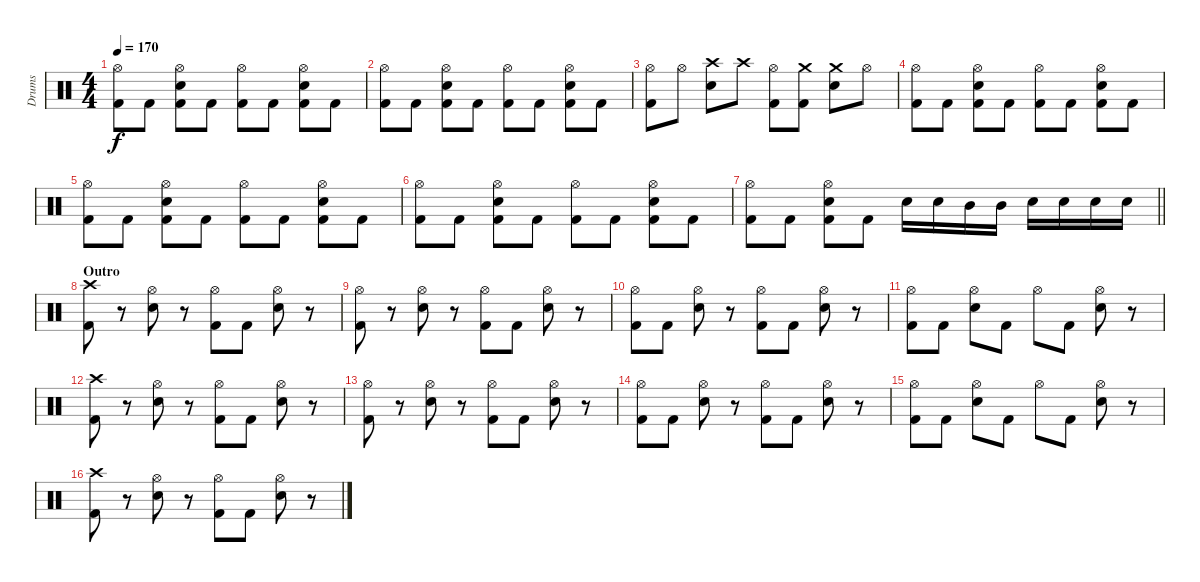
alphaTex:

\track ("Drums" "Drums") {instrument percussion}
\staff {score}
\articulation defaults
\ts (4 4)
\tempo 170
\clef neutral
\ks c
("Hi-Hat (open)" "Kick (hit) 2").8{dy f} "Kick (hit) 2".8 ("Hi-Hat (open)" "Electric Snare (hit)" "Kick (hit) 2").8 "Kick (hit) 2".8 ("Hi-Hat (open)" "Kick (hit) 2").8 "Kick (hit) 2".8 ("Hi-Hat (open)" "Electric Snare (hit)" "Kick (hit) 2").8 "Kick (hit) 2".8 |
("Hi-Hat (open)" "Kick (hit) 2").8 "Kick (hit) 2".8 ("Hi-Hat (open)" "Electric Snare (hit)" "Kick (hit) 2").8 "Kick (hit) 2".8 ("Hi-Hat (open)" "Kick (hit) 2").8 "Kick (hit) 2".8 ("Hi-Hat (open)" "Electric Snare (hit)" "Kick (hit) 2").8 "Kick (hit) 2".8 |
("Hi-Hat (open)" "Kick (hit) 2").8 "Hi-Hat (open)".8 ("Crash high (hit)" "Electric Snare (hit)").8 "Crash high (hit)".8 ("Hi-Hat (open)" "Kick (hit) 2").8 ("Crash medium (hit)" "Kick (hit) 2").8 ("Crash medium (hit)" "Electric Snare (hit)").8 "Hi-Hat (open)".8 |
("Hi-Hat (open)" "Kick (hit) 2").8 "Kick (hit) 2".8 ("Hi-Hat (open)" "Electric Snare (hit)" "Kick (hit) 2").8 "Kick (hit) 2".8 ("Hi-Hat (open)" "Kick (hit) 2").8 "Kick (hit) 2".8 ("Hi-Hat (open)" "Electric Snare (hit)" "Kick (hit) 2").8 "Kick (hit) 2".8 |
("Hi-Hat (open)" "Kick (hit) 2").8 "Kick (hit) 2".8 ("Hi-Hat (open)" "Electric Snare (hit)" "Kick (hit) 2").8 "Kick (hit) 2".8 ("Hi-Hat (open)" "Kick (hit) 2").8 "Kick (hit) 2".8 ("Hi-Hat (open)" "Electric Snare (hit)" "Kick (hit) 2").8 "Kick (hit) 2".8 |
("Hi-Hat (open)" "Kick (hit) 2").8 "Kick (hit) 2".8 ("Hi-Hat (open)" "Electric Snare (hit)" "Kick (hit) 2").8 "Kick (hit) 2".8 ("Hi-Hat (open)" "Kick (hit) 2").8 "Kick (hit) 2".8 ("Hi-Hat (open)" "Electric Snare (hit)" "Kick (hit) 2").8 "Kick (hit) 2".8 |
\barLineRight lightlight
("Hi-Hat (open)" "Kick (hit) 2").8 "Kick (hit) 2".8 ("Hi-Hat (open)" "Electric Snare (hit)" "Kick (hit) 2").8 "Kick (hit) 2".8 "Electric Snare (hit)".16 "Electric Snare (hit)".16 "Mid Tom (hit)".16 "Mid Tom (hit)".16 "Electric Snare (hit)".16 "Electric Snare (hit)".16 "Electric Snare (hit)".16 "Electric Snare (hit)".16 |
\section ("" "Outro")
("Crash high (hit)" "Kick (hit) 2").8 r.8 ("Hi-Hat (open)" "Electric Snare (hit)").8 r.8 ("Hi-Hat (open)" "Kick (hit) 2").8 "Kick (hit) 2".8 ("Hi-Hat (open)" "Electric Snare (hit)").8 r.8 |
("Hi-Hat (open)" "Kick (hit) 2").8 r.8 ("Hi-Hat (open)" "Electric Snare (hit)").8 r.8 ("Hi-Hat (open)" "Kick (hit) 2").8 "Kick (hit) 2".8 ("Hi-Hat (open)" "Electric Snare (hit)").8 r.8 |
("Hi-Hat (open)" "Kick (hit) 2").8 "Kick (hit) 2".8 ("Hi-Hat (open)" "Electric Snare (hit)").8 r.8 ("Hi-Hat (open)" "Kick (hit) 2").8 "Kick (hit) 2".8 ("Hi-Hat (open)" "Electric Snare (hit)").8 r.8 |
("Hi-Hat (open)" "Kick (hit) 2").8 "Kick (hit) 2".8 ("Hi-Hat (open)" "Electric Snare (hit)").8 "Kick (hit) 2".8 "Hi-Hat (open)".8 "Kick (hit) 2".8 ("Hi-Hat (open)" "Electric Snare (hit)").8 r.8 |
("Crash high (hit)" "Kick (hit) 2").8 r.8 ("Hi-Hat (open)" "Electric Snare (hit)").8 r.8 ("Hi-Hat (open)" "Kick (hit) 2").8 "Kick (hit) 2".8 ("Hi-Hat (open)" "Electric Snare (hit)").8 r.8 |
("Hi-Hat (open)" "Kick (hit) 2").8 r.8 ("Hi-Hat (open)" "Electric Snare (hit)").8 r.8 ("Hi-Hat (open)" "Kick (hit) 2").8 "Kick (hit) 2".8 ("Hi-Hat (open)" "Electric Snare (hit)").8 r.8 |
("Hi-Hat (open)" "Kick (hit) 2").8 "Kick (hit) 2".8 ("Hi-Hat (open)" "Electric Snare (hit)").8 r.8 ("Hi-Hat (open)" "Kick (hit) 2").8 "Kick (hit) 2".8 ("Hi-Hat (open)" "Electric Snare (hit)").8 r.8 |
("Hi-Hat (open)" "Kick (hit) 2").8 "Kick (hit) 2".8 ("Hi-Hat (open)" "Electric Snare (hit)").8 "Kick (hit) 2".8 "Hi-Hat (open)".8 "Kick (hit) 2".8 ("Hi-Hat (open)" "Electric Snare (hit)").8 r.8 |
("Crash high (hit)" "Kick (hit) 2").8 r.8 ("Hi-Hat (open)" "Electric Snare (hit)").8 r.8 ("Hi-Hat (open)" "Kick (hit) 2").8 "Kick (hit) 2".8 ("Hi-Hat (open)" "Electric Snare (hit)").8 r.8
